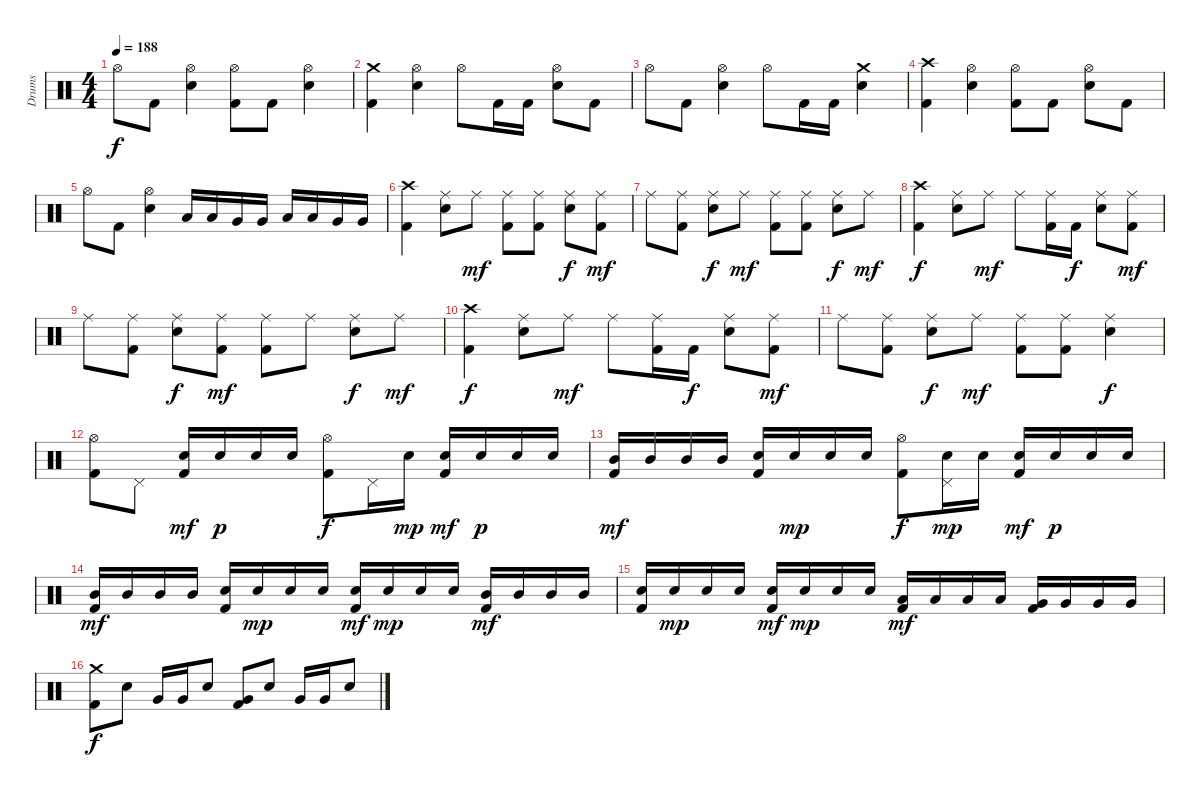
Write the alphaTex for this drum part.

\track ("Drums" "Drums") {instrument percussion}
\staff {score}
\articulation defaults
\ts (4 4)
\tempo 188
\clef neutral
\ks c "Hi-Hat (open)".8{dy f} "Kick (hit) 2".8
("Hi-Hat (open)" "Electric Snare (hit)").4 ("Hi-Hat (open)" "Kick (hit) 2").8 "Kick (hit) 2".8 ("Hi-Hat (open)" "Electric Snare (hit)").4 |
("Crash medium (hit)" "Kick (hit) 2").4 ("Hi-Hat (open)" "Electric Snare (hit)").4 "Hi-Hat (open)".8 "Kick (hit) 2".16 "Kick (hit) 2".16 ("Hi-Hat (open)" "Electric Snare (hit)").8 "Kick (hit) 2".8 |
"Hi-Hat (open)".8 "Kick (hit) 2".8 ("Hi-Hat (open)" "Electric Snare (hit)").4 "Hi-Hat (open)".8 "Kick (hit) 2".16 "Kick (hit) 2".16 ("Crash medium (hit)" "Electric Snare (hit)").4 |
("Crash high (hit)" "Kick (hit) 2").4 ("Hi-Hat (open)" "Electric Snare (hit)").4 ("Hi-Hat (open)" "Kick (hit) 2").8 "Kick (hit) 2".8 ("Hi-Hat (open)" "Electric Snare (hit)").8 "Kick (hit) 2".8 |
"Hi-Hat (open)".8 "Kick (hit) 2".8 ("Hi-Hat (open)" "Electric Snare (hit)").4 "Low Tom (hit)".16 "Low Tom (hit)".16 "Very Low Tom (hit)".16 "Very Low Tom (hit)".16 "Low Tom (hit)".16 "Low Tom (hit)".16 "Very Low Tom (hit)".16 "Very Low Tom (hit)".16 |
("Crash high (hit)" "Kick (hit) 2").4 ("Ride (middle)" "Electric Snare (hit)").8 "Ride (middle)".8{dy mf} ("Ride (middle)" "Kick (hit) 2").8 ("Ride (middle)" "Kick (hit) 2").8 ("Ride (middle)" "Electric Snare (hit)").8{dy f} ("Ride (middle)" "Kick (hit) 2").8{dy mf} |
"Ride (middle)".8 ("Ride (middle)" "Kick (hit) 2").8 ("Ride (middle)" "Electric Snare (hit)").8{dy f} "Ride (middle)".8{dy mf} ("Ride (middle)" "Kick (hit) 2").8 ("Ride (middle)" "Kick (hit) 2").8 ("Ride (middle)" "Electric Snare (hit)").8{dy f} "Ride (middle)".8{dy mf} |
("Crash high (hit)" "Kick (hit) 2").4{dy f} ("Ride (middle)" "Electric Snare (hit)").8 "Ride (middle)".8{dy mf} "Ride (middle)".8 ("Ride (middle)" "Kick (hit) 2").16 "Kick (hit) 2".16{dy f} ("Ride (middle)" "Electric Snare (hit)").8 ("Ride (middle)" "Kick (hit) 2").8{dy mf} |
"Ride (middle)".8 ("Ride (middle)" "Kick (hit) 2").8 ("Ride (middle)" "Electric Snare (hit)").8{dy f} ("Ride (middle)" "Kick (hit) 2").8{dy mf} ("Ride (middle)" "Kick (hit) 2").8 "Ride (middle)".8 ("Ride (middle)" "Electric Snare (hit)").8{dy f} "Ride (middle)".8{dy mf} |
("Crash high (hit)" "Kick (hit) 2").4{dy f} ("Ride (middle)" "Electric Snare (hit)").8 "Ride (middle)".8{dy mf} "Ride (middle)".8 ("Ride (middle)" "Kick (hit) 2").16 "Kick (hit) 2".16{dy f} ("Ride (middle)" "Electric Snare (hit)").8 ("Ride (middle)" "Kick (hit) 2").8{dy mf} |
"Ride (middle)".8 ("Ride (middle)" "Kick (hit) 2").8 ("Ride (middle)" "Electric Snare (hit)").8{dy f} "Ride (middle)".8{dy mf} ("Ride (middle)" "Kick (hit) 2").8 ("Ride (middle)" "Kick (hit) 2").8 ("Ride (middle)" "Electric Snare (hit)").4{dy f} |
("Hi-Hat (open)" "Kick (hit) 2").8 "Pedal Hi-Hat (hit)".8 ("Electric Snare (hit)" "Kick (hit) 2").16{dy mf} "Electric Snare (hit)".16{dy p} "Electric Snare (hit)".16 "Electric Snare (hit)".16 ("Hi-Hat (open)" "Kick (hit) 2").8{dy f} "Pedal Hi-Hat (hit)".16 "Electric Snare (hit)".16{dy mp} ("Electric Snare (hit)" "Kick (hit) 2").16{dy mf} "Electric Snare (hit)".16{dy p} "Electric Snare (hit)".16 "Electric Snare (hit)".16 |
("Mid Tom (hit)" "Kick (hit) 2").16{dy mf} "Mid Tom (hit)".16 "Mid Tom (hit)".16 "Mid Tom (hit)".16 ("Electric Snare (hit)" "Kick (hit) 2").16 "Electric Snare (hit)".16{dy mp} "Electric Snare (hit)".16 "Electric Snare (hit)".16 ("Hi-Hat (open)" "Kick (hit) 2").8{dy f} ("Pedal Hi-Hat (hit)" "Electric Snare (hit)").16{dy mp} "Electric Snare (hit)".16 ("Electric Snare (hit)" "Kick (hit) 2").16{dy mf} "Electric Snare (hit)".16{dy p} "Electric Snare (hit)".16 "Electric Snare (hit)".16 |
("Mid Tom (hit)" "Kick (hit) 2").16{dy mf} "Mid Tom (hit)".16 "Mid Tom (hit)".16 "Mid Tom (hit)".16 ("Electric Snare (hit)" "Kick (hit) 2").16 "Electric Snare (hit)".16{dy mp} "Electric Snare (hit)".16 "Electric Snare (hit)".16 ("Electric Snare (hit)" "Kick (hit) 2").16{dy mf} "Electric Snare (hit)".16{dy mp} "Electric Snare (hit)".16 "Electric Snare (hit)".16 ("Mid Tom (hit)" "Kick (hit) 2").16{dy mf} "Mid Tom (hit)".16 "Mid Tom (hit)".16 "Mid Tom (hit)".16 |
("Electric Snare (hit)" "Kick (hit) 2").16 "Electric Snare (hit)".16{dy mp} "Electric Snare (hit)".16 "Electric Snare (hit)".16 ("Electric Snare (hit)" "Kick (hit) 2").16{dy mf} "Electric Snare (hit)".16{dy mp} "Electric Snare (hit)".16 "Electric Snare (hit)".16 ("Low Tom (hit)" "Kick (hit) 2").16{dy mf} "Low Tom (hit)".16 "Low Tom (hit)".16 "Low Tom (hit)".16 ("Very Low Tom (hit)" "Kick (hit) 2").16 "Very Low Tom (hit)".16 "Very Low Tom (hit)".16 "Very Low Tom (hit)".16 |
("Crash medium (hit)" "Kick (hit) 2").8{dy f} "Electric Snare (hit)".8 "Very Low Tom (hit)".16 "Very Low Tom (hit)".16 "Electric Snare (hit)".8 ("Very Low Tom (hit)" "Kick (hit) 2").8 "Electric Snare (hit)".8 "Very Low Tom (hit)".16 "Very Low Tom (hit)".16 "Electric Snare (hit)".8
